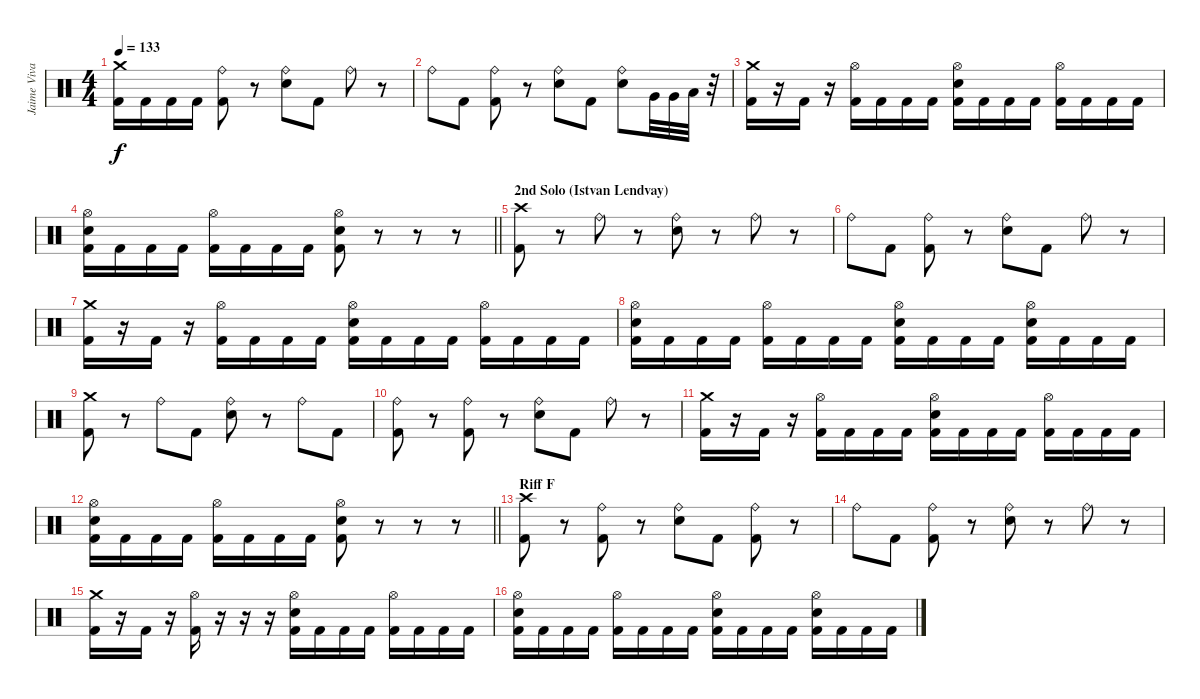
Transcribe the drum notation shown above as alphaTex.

\track ("Jaime Vivar" "Jaime Viva") {instrument percussion}
\staff {score}
\articulation defaults
\ts (4 4)
\tempo 133
\clef neutral
\ks c
("Crash medium (hit)" "Kick (hit) 2").16{dy f} "Kick (hit) 2".16 "Kick (hit) 2".16 "Kick (hit) 2".16 ("Ride (bell)" "Kick (hit) 2").8 r.8 ("Ride (bell)" "Snare (hit) 2").8 "Kick (hit) 2".8 "Ride (bell)".8 r.8 |
"Ride (bell)".8 "Kick (hit) 2".8 ("Ride (bell)" "Kick (hit) 2").8 r.8 ("Ride (bell)" "Snare (hit) 2").8 "Kick (hit) 2".8 ("Ride (bell)" "Snare (hit) 2").8 "Very Low Tom (hit)".32 "Very Low Tom (hit)".32 "Low Floor Tom (hit)".32 r.32 |
("Crash medium (hit)" "Kick (hit) 2").16 r.16 "Kick (hit) 2".16 r.16 ("Hi-Hat (open)" "Kick (hit) 2").16 "Kick (hit) 2".16 "Kick (hit) 2".16 "Kick (hit) 2".16 ("Hi-Hat (open)" "Snare (hit) 2" "Kick (hit) 2").16 "Kick (hit) 2".16 "Kick (hit) 2".16 "Kick (hit) 2".16 ("Hi-Hat (open)" "Kick (hit) 2").16 "Kick (hit) 2".16 "Kick (hit) 2".16 "Kick (hit) 2".16 |
\barLineRight lightlight
("Hi-Hat (open)" "Snare (hit) 2" "Kick (hit) 2").16 "Kick (hit) 2".16 "Kick (hit) 2".16 "Kick (hit) 2".16 ("Hi-Hat (open)" "Kick (hit) 2").16 "Kick (hit) 2".16 "Kick (hit) 2".16 "Kick (hit) 2".16 ("Hi-Hat (open)" "Snare (hit) 2" "Kick (hit) 2").8 r.8 r.8 r.8 |
\section ("" "2nd Solo (Istvan Lendvay)")
("Crash high (hit)" "Kick (hit) 2").8 r.8 "Ride (bell)".8 r.8 ("Ride (bell)" "Snare (hit) 2").8 r.8 "Ride (bell)".8 r.8 |
"Ride (bell)".8 "Kick (hit) 2".8 ("Ride (bell)" "Kick (hit) 2").8 r.8 ("Ride (bell)" "Snare (hit) 2").8 "Kick (hit) 2".8 "Ride (bell)".8 r.8 |
("Crash medium (hit)" "Kick (hit) 2").16 r.16 "Kick (hit) 2".16 r.16 ("Hi-Hat (open)" "Kick (hit) 2").16 "Kick (hit) 2".16 "Kick (hit) 2".16 "Kick (hit) 2".16 ("Hi-Hat (open)" "Snare (hit) 2" "Kick (hit) 2").16 "Kick (hit) 2".16 "Kick (hit) 2".16 "Kick (hit) 2".16 ("Hi-Hat (open)" "Kick (hit) 2").16 "Kick (hit) 2".16 "Kick (hit) 2".16 "Kick (hit) 2".16 |
("Hi-Hat (open)" "Snare (hit) 2" "Kick (hit) 2").16 "Kick (hit) 2".16 "Kick (hit) 2".16 "Kick (hit) 2".16 ("Hi-Hat (open)" "Kick (hit) 2").16 "Kick (hit) 2".16 "Kick (hit) 2".16 "Kick (hit) 2".16 ("Hi-Hat (open)" "Snare (hit) 2" "Kick (hit) 2").16 "Kick (hit) 2".16 "Kick (hit) 2".16 "Kick (hit) 2".16 ("Hi-Hat (open)" "Snare (hit) 2" "Kick (hit) 2").16 "Kick (hit) 2".16 "Kick (hit) 2".16 "Kick (hit) 2".16 |
("Crash medium (hit)" "Kick (hit) 2").8 r.8 "Ride (bell)".8 "Kick (hit) 2".8 ("Ride (bell)" "Snare (hit) 2").8 r.8 "Ride (bell)".8 "Kick (hit) 2".8 |
("Ride (bell)" "Kick (hit) 2").8 r.8 ("Ride (bell)" "Kick (hit) 2").8 r.8 ("Ride (bell)" "Snare (hit) 2").8 "Kick (hit) 2".8 "Ride (bell)".8 r.8 |
("Crash medium (hit)" "Kick (hit) 2").16 r.16 "Kick (hit) 2".16 r.16 ("Hi-Hat (open)" "Kick (hit) 2").16 "Kick (hit) 2".16 "Kick (hit) 2".16 "Kick (hit) 2".16 ("Hi-Hat (open)" "Snare (hit) 2" "Kick (hit) 2").16 "Kick (hit) 2".16 "Kick (hit) 2".16 "Kick (hit) 2".16 ("Hi-Hat (open)" "Kick (hit) 2").16 "Kick (hit) 2".16 "Kick (hit) 2".16 "Kick (hit) 2".16 |
\barLineRight lightlight
("Hi-Hat (open)" "Snare (hit) 2" "Kick (hit) 2").16 "Kick (hit) 2".16 "Kick (hit) 2".16 "Kick (hit) 2".16 ("Hi-Hat (open)" "Kick (hit) 2").16 "Kick (hit) 2".16 "Kick (hit) 2".16 "Kick (hit) 2".16 ("Hi-Hat (open)" "Snare (hit) 2" "Kick (hit) 2").8 r.8 r.8 r.8 |
\section ("" "Riff F")
("Crash high (hit)" "Kick (hit) 2").8 r.8 ("Ride (bell)" "Kick (hit) 2").8 r.8 ("Ride (bell)" "Snare (hit) 2").8 "Kick (hit) 2".8 ("Ride (bell)" "Kick (hit) 2").8 r.8 |
"Ride (bell)".8 "Kick (hit) 2".8 ("Ride (bell)" "Kick (hit) 2").8 r.8 ("Ride (bell)" "Snare (hit) 2").8 r.8 "Ride (bell)".8 r.8 |
("Crash medium (hit)" "Kick (hit) 2").16 r.16 "Kick (hit) 2".16 r.16 ("Hi-Hat (open)" "Kick (hit) 2").16 r.16 r.16 r.16 ("Hi-Hat (open)" "Snare (hit) 2" "Kick (hit) 2").16 "Kick (hit) 2".16 "Kick (hit) 2".16 "Kick (hit) 2".16 ("Hi-Hat (open)" "Kick (hit) 2").16 "Kick (hit) 2".16 "Kick (hit) 2".16 "Kick (hit) 2".16 |
("Hi-Hat (open)" "Snare (hit) 2" "Kick (hit) 2").16 "Kick (hit) 2".16 "Kick (hit) 2".16 "Kick (hit) 2".16 ("Hi-Hat (open)" "Kick (hit) 2").16 "Kick (hit) 2".16 "Kick (hit) 2".16 "Kick (hit) 2".16 ("Hi-Hat (open)" "Snare (hit) 2" "Kick (hit) 2").16 "Kick (hit) 2".16 "Kick (hit) 2".16 "Kick (hit) 2".16 ("Hi-Hat (open)" "Snare (hit) 2" "Kick (hit) 2").16 "Kick (hit) 2".16 "Kick (hit) 2".16 "Kick (hit) 2".16
